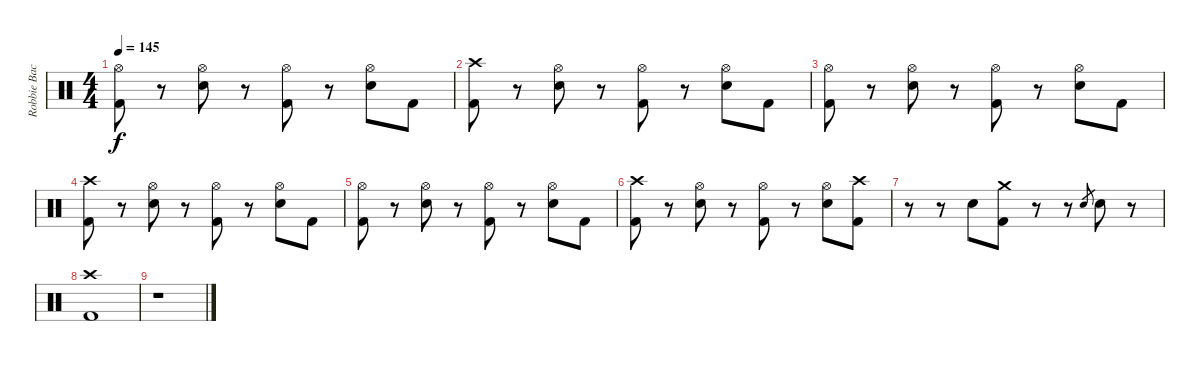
\track ("Robbie Bachman" "Robbie Bac") {instrument percussion}
\staff {score}
\articulation defaults
\ts (4 4)
\tempo 145
\clef neutral
\ks c
("Hi-Hat (open)" "Kick (hit) 2").8{dy f} r.8 ("Hi-Hat (open)" "Snare (hit) 2").8 r.8 ("Hi-Hat (open)" "Kick (hit) 2").8 r.8 ("Hi-Hat (open)" "Snare (hit) 2").8 "Kick (hit) 2".8 |
("Crash high (hit)" "Kick (hit) 2").8 r.8 ("Hi-Hat (open)" "Snare (hit) 2").8 r.8 ("Hi-Hat (open)" "Kick (hit) 2").8 r.8 ("Hi-Hat (open)" "Snare (hit) 2").8 "Kick (hit) 2".8 |
("Hi-Hat (open)" "Kick (hit) 2").8 r.8 ("Hi-Hat (open)" "Snare (hit) 2").8 r.8 ("Hi-Hat (open)" "Kick (hit) 2").8 r.8 ("Hi-Hat (open)" "Snare (hit) 2").8 "Kick (hit) 2".8 |
("Crash high (hit)" "Kick (hit) 2").8 r.8 ("Hi-Hat (open)" "Snare (hit) 2").8 r.8 ("Hi-Hat (open)" "Kick (hit) 2").8 r.8 ("Hi-Hat (open)" "Snare (hit) 2").8 "Kick (hit) 2".8 |
("Hi-Hat (open)" "Kick (hit) 2").8 r.8 ("Hi-Hat (open)" "Snare (hit) 2").8 r.8 ("Hi-Hat (open)" "Kick (hit) 2").8 r.8 ("Hi-Hat (open)" "Snare (hit) 2").8 "Kick (hit) 2".8 |
("Crash high (hit)" "Kick (hit) 2").8 r.8 ("Hi-Hat (open)" "Snare (hit) 2").8 r.8 ("Hi-Hat (open)" "Kick (hit) 2").8 r.8 ("Hi-Hat (open)" "Snare (hit) 2").8 ("Crash high (hit)" "Kick (hit) 2").8 |
r.8 r.8 "Snare (hit) 2".8 ("Crash medium (hit)" "Kick (hit) 2").8 r.8 r.8 "Snare (hit) 2".8{gr} "Snare (hit) 2".8 r.8 |
("Crash high (hit)" "Kick (hit) 2").1 |
r.1
